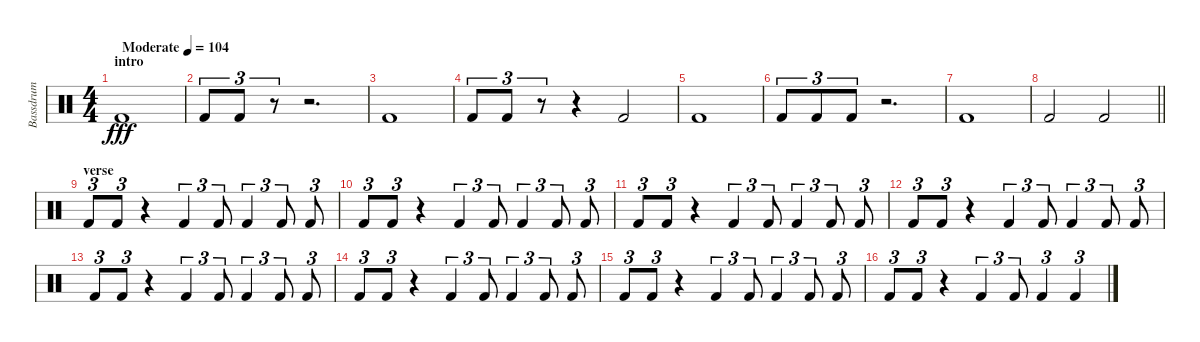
\track ("Bassdrum" "Bassdrum") {instrument percussion}
\staff {score}
\articulation defaults
\ts (4 4)
\section ("" "intro")
\tempo (104 "Moderate")
\clef neutral
\ks c "Kick (hit) 2".1{dy fff volume 16}
|
"Kick (hit) 2".8{tu (3 2)} "Kick (hit) 2".8{tu (3 2)} r.8{tu (3 2)} r.2{d} |
"Kick (hit) 2".1 |
"Kick (hit) 2".8{tu (3 2)} "Kick (hit) 2".8{tu (3 2)} r.8{tu (3 2)} r.4 "Kick (hit) 2".2 |
"Kick (hit) 2".1 |
"Kick (hit) 2".8{tu (3 2)} "Kick (hit) 2".8{tu (3 2)} "Kick (hit) 2".8{tu (3 2)} r.2{d} |
"Kick (hit) 2".1 |
\barLineRight lightlight "Kick (hit) 2".2 "Kick (hit) 2".2
|
\section ("" "verse")
"Kick (hit) 2".8{tu (3 2)} "Kick (hit) 2".8{tu (3 2)} r.4 "Kick (hit) 2".4{tu (3 2)} "Kick (hit) 2".8{tu (3 2)} "Kick (hit) 2".4{tu (3 2)} "Kick (hit) 2".8{tu (3 2)} "Kick (hit) 2".8{tu (3 2)} |
"Kick (hit) 2".8{tu (3 2)} "Kick (hit) 2".8{tu (3 2)} r.4 "Kick (hit) 2".4{tu (3 2)} "Kick (hit) 2".8{tu (3 2)} "Kick (hit) 2".4{tu (3 2)} "Kick (hit) 2".8{tu (3 2)} "Kick (hit) 2".8{tu (3 2)} |
"Kick (hit) 2".8{tu (3 2)} "Kick (hit) 2".8{tu (3 2)} r.4 "Kick (hit) 2".4{tu (3 2)} "Kick (hit) 2".8{tu (3 2)} "Kick (hit) 2".4{tu (3 2)} "Kick (hit) 2".8{tu (3 2)} "Kick (hit) 2".8{tu (3 2)} |
"Kick (hit) 2".8{tu (3 2)} "Kick (hit) 2".8{tu (3 2)} r.4 "Kick (hit) 2".4{tu (3 2)} "Kick (hit) 2".8{tu (3 2)} "Kick (hit) 2".4{tu (3 2)} "Kick (hit) 2".8{tu (3 2)} "Kick (hit) 2".8{tu (3 2)} |
"Kick (hit) 2".8{tu (3 2)} "Kick (hit) 2".8{tu (3 2)} r.4 "Kick (hit) 2".4{tu (3 2)} "Kick (hit) 2".8{tu (3 2)} "Kick (hit) 2".4{tu (3 2)} "Kick (hit) 2".8{tu (3 2)} "Kick (hit) 2".8{tu (3 2)} |
"Kick (hit) 2".8{tu (3 2)} "Kick (hit) 2".8{tu (3 2)} r.4 "Kick (hit) 2".4{tu (3 2)} "Kick (hit) 2".8{tu (3 2)} "Kick (hit) 2".4{tu (3 2)} "Kick (hit) 2".8{tu (3 2)} "Kick (hit) 2".8{tu (3 2)} |
"Kick (hit) 2".8{tu (3 2)} "Kick (hit) 2".8{tu (3 2)} r.4 "Kick (hit) 2".4{tu (3 2)} "Kick (hit) 2".8{tu (3 2)} "Kick (hit) 2".4{tu (3 2)} "Kick (hit) 2".8{tu (3 2)} "Kick (hit) 2".8{tu (3 2)} |
"Kick (hit) 2".8{tu (3 2)} "Kick (hit) 2".8{tu (3 2)} r.4 "Kick (hit) 2".4{tu (3 2)} "Kick (hit) 2".8{tu (3 2)} "Kick (hit) 2".4{tu (3 2)} "Kick (hit) 2".4{tu (3 2)}
